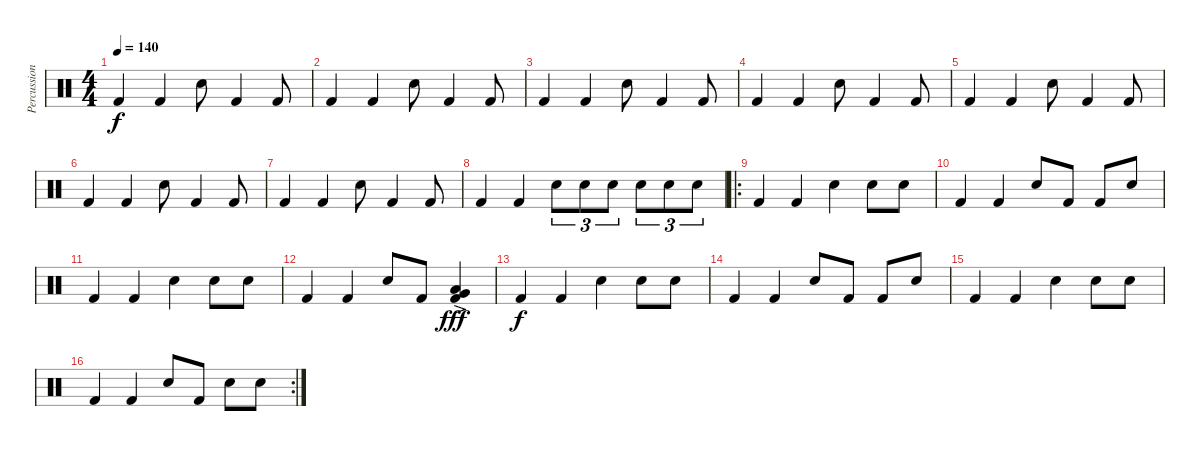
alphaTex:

\track ("Percussions" "Percussion") {instrument percussion}
\staff {score}
\articulation defaults
\ts (4 4)
\tempo 140
\clef neutral
\ks c "Kick (hit) 2".4{dy f} "Kick (hit) 2".4 "Snare (hit) 2".8 "Kick (hit) 2".4 "Kick (hit) 2".8
|
"Kick (hit) 2".4 "Kick (hit) 2".4 "Snare (hit) 2".8 "Kick (hit) 2".4 "Kick (hit) 2".8 |
"Kick (hit) 2".4 "Kick (hit) 2".4 "Snare (hit) 2".8 "Kick (hit) 2".4 "Kick (hit) 2".8 |
"Kick (hit) 2".4 "Kick (hit) 2".4 "Snare (hit) 2".8 "Kick (hit) 2".4 "Kick (hit) 2".8 |
"Kick (hit) 2".4 "Kick (hit) 2".4 "Snare (hit) 2".8 "Kick (hit) 2".4 "Kick (hit) 2".8 |
"Kick (hit) 2".4 "Kick (hit) 2".4 "Snare (hit) 2".8 "Kick (hit) 2".4 "Kick (hit) 2".8 |
"Kick (hit) 2".4 "Kick (hit) 2".4 "Snare (hit) 2".8 "Kick (hit) 2".4 "Kick (hit) 2".8 |
"Kick (hit) 2".4 "Kick (hit) 2".4 "Snare (hit) 2".8{tu (3 2)} "Snare (hit) 2".8{tu (3 2)} "Snare (hit) 2".8{tu (3 2)} "Snare (hit) 2".8{tu (3 2)} "Snare (hit) 2".8{tu (3 2)} "Snare (hit) 2".8{tu (3 2)} |
\ro "Kick (hit) 2".4 "Kick (hit) 2".4 "Snare (hit) 2".4 "Snare (hit) 2".8 "Snare (hit) 2".8
|
"Kick (hit) 2".4 "Kick (hit) 2".4 "Snare (hit) 2".8 "Kick (hit) 2".8 "Kick (hit) 2".8 "Snare (hit) 2".8 |
"Kick (hit) 2".4 "Kick (hit) 2".4 "Snare (hit) 2".4 "Snare (hit) 2".8 "Snare (hit) 2".8 |
"Kick (hit) 2".4 "Kick (hit) 2".4 "Snare (hit) 2".8 "Kick (hit) 2".8 ("Very Low Tom (hit)"{ac} "Low Floor Tom (hit)"{ac} "Kick (hit) 2").4{dy fff} |
"Kick (hit) 2".4{dy f} "Kick (hit) 2".4 "Snare (hit) 2".4 "Snare (hit) 2".8 "Snare (hit) 2".8 |
"Kick (hit) 2".4 "Kick (hit) 2".4 "Snare (hit) 2".8 "Kick (hit) 2".8 "Kick (hit) 2".8 "Snare (hit) 2".8 |
"Kick (hit) 2".4 "Kick (hit) 2".4 "Snare (hit) 2".4 "Snare (hit) 2".8 "Snare (hit) 2".8 |
\rc 2 "Kick (hit) 2".4 "Kick (hit) 2".4 "Snare (hit) 2".8 "Kick (hit) 2".8 "Snare (hit) 2".8 "Snare (hit) 2".8
